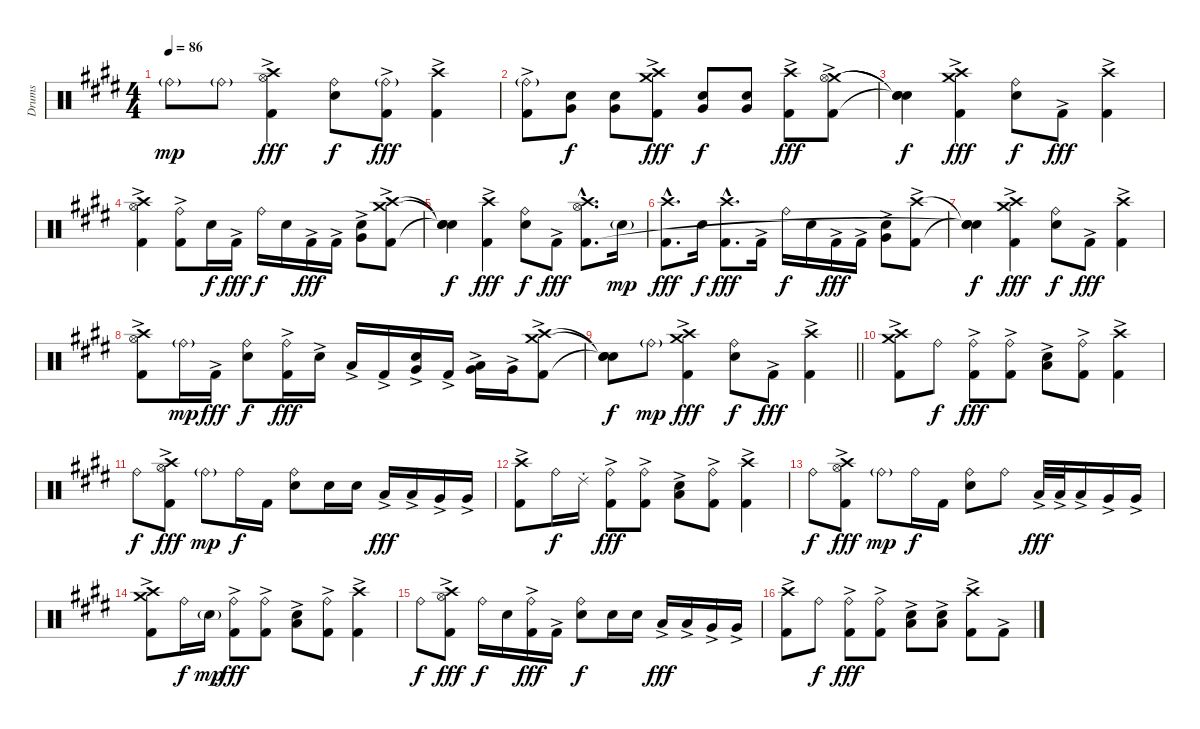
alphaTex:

\track ("Drums" "Drums") {instrument percussion}
\staff {score}
\articulation defaults
\ts (4 4)
\tempo 86
\clef neutral
\ks c#minor "Ride (bell)"{g}.8{dy mp} "Ride (bell)"{g}.8
("Crash high (hit)" "Hi-Hat (open)" "Kick (hit) 2"{ac}).4{dy fff} ("Ride (bell)" "Snare (hit) 2").8{dy f} ("Ride (bell)"{g} "Kick (hit) 2"{ac}).8{dy fff} ("Crash high (hit)" "Kick (hit) 2"{ac}).4 |
("Ride (bell)"{g} "Kick (hit) 2"{ac}).8 ("Snare (hit) 2" "Very Low Tom (hit)").8{dy f} ("Snare (hit) 2" "Very Low Tom (hit)").8 ("Crash high (hit)" "Crash medium (hit)" "Kick (hit) 2"{ac}).8{dy fff} ("Snare (hit) 2" "Very Low Tom (hit)").8{dy f} ("Snare (hit) 2" "Very Low Tom (hit)").8 ("Crash high (hit)" "Kick (hit) 2"{ac}).8{dy fff} ("Crash medium (hit)" "Hi-Hat (open)" "Kick (hit) 2"{ac}).8 |
("Snare (hit)"{t} "Snare (hit)"{t} "Snare (hit)"{t}).4{dy f} ("Crash high (hit)" "Crash medium (hit)" "Kick (hit) 2"{ac}).4{dy fff} ("Ride (bell)" "Snare (hit) 2").8{dy f} "Kick (hit) 2"{ac}.8{dy fff} ("Crash high (hit)" "Kick (hit) 2"{ac}).4 |
("Crash high (hit)" "Hi-Hat (open)" "Kick (hit) 2"{ac}).4 ("Ride (bell)" "Kick (hit) 2"{ac}).8 "Snare (hit) 2".16{dy f} "Kick (hit) 2"{ac}.16{dy fff} "Ride (bell)".16{dy f} "Snare (hit) 2".16 "Kick (hit) 2"{ac}.16{dy fff} "Kick (hit) 2"{ac}.16 ("Snare (hit) 2"{ac} "Very Low Tom (hit)"{ac}).8 ("Crash high (hit)" "Crash medium (hit)" "Kick (hit) 2"{ac}).8 |
("Snare (hit)"{t} "Snare (hit)"{t} "Snare (hit)"{t}).4{dy f} ("Crash high (hit)" "Kick (hit) 2"{ac}).4{dy fff} ("Ride (bell)" "Snare (hit) 2").8{dy f} "Kick (hit) 2"{ac}.8{dy fff} ("Crash high (hit)"{hac} "Hi-Hat (open)"{hac} "Kick (hit) 2"{hac}).8{d} "Snare (hit) 2"{g}.16{dy mp} |
("Crash high (hit)"{hac} "Kick (hit) 2"{hac}).8{d dy fff} "Snare (hit) 2".16{dy f} ("Crash high (hit)"{hac} "Kick (hit) 2"{hac}).8{d dy fff} "Kick (hit) 2"{ac}.16 "Ride (bell)".16{dy f} "Snare (hit) 2".16 "Kick (hit) 2"{ac}.16{dy fff} "Kick (hit) 2"{ac}.16 ("Snare (hit) 2" "Very Low Tom (hit)"{ac}).8 ("Crash high (hit)" "Kick (hit) 2"{ac}).8 |
("Snare (hit)"{t} "Snare (hit)"{t} "Snare (hit)"{t}).4{dy f} ("Crash high (hit)" "Crash medium (hit)" "Kick (hit) 2"{ac}).4{dy fff} ("Ride (bell)" "Snare (hit) 2").8{dy f} "Kick (hit) 2"{ac}.8{dy fff} ("Crash high (hit)" "Kick (hit) 2"{ac}).4 |
("Crash high (hit)" "Hi-Hat (open)" "Kick (hit) 2"{ac}).8 "Ride (bell)"{g}.16{dy mp} "Kick (hit) 2"{ac}.16{dy fff} ("Ride (bell)" "Snare (hit) 2").8{dy f} ("Ride (bell)" "Kick (hit) 2"{ac}).16{dy fff} "Snare (hit) 2"{ac}.16 "Low Tom (hit)"{ac}.16 "Kick (hit) 2"{ac}.16 ("Snare (hit) 2"{ac} "Very Low Tom (hit)"{ac}).16 "Kick (hit) 2"{ac}.16 ("Very Low Tom (hit)"{ac} "Low Floor Tom (hit)"{ac}).16 "Very Low Tom (hit)"{ac}.16 ("Crash high (hit)" "Crash medium (hit)" "Kick (hit) 2"{ac}).8 |
\barLineRight lightlight
("Snare (hit)"{t} "Snare (hit)"{t} "Snare (hit)"{t}).8{dy f} "Ride (bell)"{g}.8{dy mp} ("Crash high (hit)" "Crash medium (hit)" "Kick (hit) 2"{ac}).4{dy fff} ("Ride (bell)" "Snare (hit) 2").8{dy f} "Kick (hit) 2"{ac}.8{dy fff} ("Crash high (hit)" "Kick (hit) 2"{ac}).4 |
("Crash high (hit)" "Crash medium (hit)" "Kick (hit) 2"{ac}).8 "Ride (bell)".8{dy f} ("Ride (bell)" "Kick (hit) 2"{ac}).8{dy fff} ("Ride (bell)" "Kick (hit) 2"{ac}).8 ("Snare (hit) 2" "Low Tom (hit)"{ac}).8 ("Ride (bell)" "Kick (hit) 2"{ac}).8 ("Crash high (hit)" "Kick (hit) 2"{ac}).4 |
"Ride (bell)".8{dy f} ("Crash high (hit)" "Hi-Hat (open)" "Kick (hit) 2"{ac}).8{dy fff} "Ride (bell)"{g}.8{dy mp} "Ride (bell)".16{dy f} "Kick (hit) 2".16 ("Ride (bell)" "Snare (hit) 2").8 "Snare (hit) 2".16 "Snare (hit) 2".16 "Low Tom (hit)"{ac}.16{dy fff} "Low Tom (hit)"{ac}.16 "Very Low Tom (hit)"{ac}.16 "Very Low Tom (hit)"{ac}.16 |
("Crash high (hit)" "Kick (hit) 2"{ac}).8 "Ride (bell)".16{dy f} "Ride (choke) 2".16 ("Ride (bell)" "Kick (hit) 2"{ac}).8{dy fff} ("Ride (bell)" "Kick (hit) 2"{ac}).8 ("Snare (hit) 2" "Low Tom (hit)"{ac}).8 ("Ride (bell)" "Kick (hit) 2"{ac}).8 ("Crash high (hit)" "Kick (hit) 2"{ac}).4 |
"Ride (bell)".8{dy f} ("Crash high (hit)" "Hi-Hat (open)" "Kick (hit) 2"{ac}).8{dy fff} "Ride (bell)"{g}.8{dy mp} "Ride (bell)".16{dy f} "Kick (hit) 2".16 ("Ride (bell)" "Snare (hit) 2").8 "Ride (bell)".8 "Low Tom (hit)"{ac}.32{dy fff} "Low Tom (hit)"{ac}.32 "Low Tom (hit)"{ac}.16 "Very Low Tom (hit)"{ac}.16 "Very Low Tom (hit)"{ac}.16 |
("Crash high (hit)" "Crash medium (hit)" "Kick (hit) 2"{ac}).8 "Ride (bell)".16{dy f} "Snare (hit) 2"{g}.16{dy mp} ("Ride (bell)" "Kick (hit) 2"{ac}).8{dy fff} ("Ride (bell)" "Kick (hit) 2"{ac}).8 ("Snare (hit) 2" "Low Tom (hit)"{ac}).8 ("Ride (bell)" "Kick (hit) 2"{ac}).8 ("Crash high (hit)" "Kick (hit) 2"{ac}).4 |
"Ride (bell)".8{dy f} ("Crash high (hit)" "Hi-Hat (open)" "Kick (hit) 2"{ac}).8{dy fff} "Ride (bell)".16{dy f} "Snare (hit) 2".16 ("Ride (bell)" "Kick (hit) 2"{ac}).16{dy fff} "Kick (hit) 2"{ac}.16 ("Ride (bell)" "Snare (hit) 2").8{dy f} "Snare (hit) 2".16 "Snare (hit) 2".16 "Low Tom (hit)"{ac}.16{dy fff} "Low Tom (hit)"{ac}.16 "Very Low Tom (hit)"{ac}.16 "Very Low Tom (hit)"{ac}.16 |
("Crash high (hit)" "Kick (hit) 2"{ac}).8 "Ride (bell)".8{dy f} ("Ride (bell)" "Kick (hit) 2"{ac}).8{dy fff} ("Ride (bell)" "Kick (hit) 2"{ac}).8 ("Snare (hit) 2" "Low Tom (hit)"{ac}).8 ("Snare (hit) 2" "Low Tom (hit)"{ac}).8 ("Crash high (hit)" "Kick (hit) 2"{ac}).8 "Kick (hit) 2"{ac}.8
